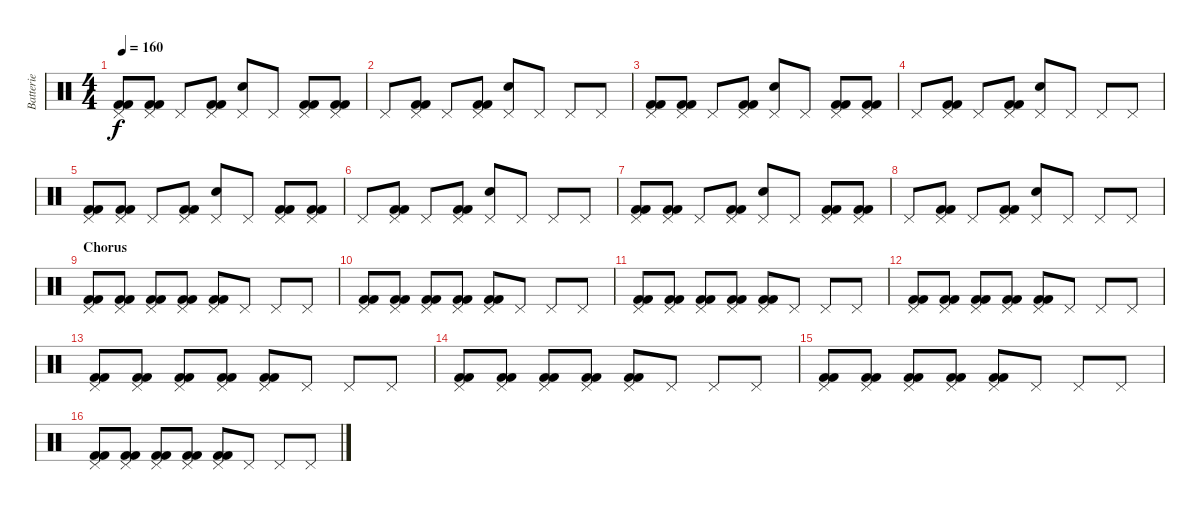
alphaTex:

\track ("Batterie" "Batterie") {instrument percussion}
\staff {score}
\articulation defaults
\ts (4 4)
\tempo 160
\clef neutral
\ks c
("Pedal Hi-Hat (hit)" "Kick (hit) 2" "Kick (hit) 2").8{dy f} ("Pedal Hi-Hat (hit)" "Kick (hit) 2" "Kick (hit) 2").8 "Pedal Hi-Hat (hit)".8 ("Pedal Hi-Hat (hit)" "Kick (hit) 2" "Kick (hit) 2").8 ("Pedal Hi-Hat (hit)" "Electric Snare (hit)").8 "Pedal Hi-Hat (hit)".8 ("Pedal Hi-Hat (hit)" "Kick (hit) 2" "Kick (hit) 2").8 ("Pedal Hi-Hat (hit)" "Kick (hit) 2" "Kick (hit) 2").8 |
"Pedal Hi-Hat (hit)".8 ("Pedal Hi-Hat (hit)" "Kick (hit) 2" "Kick (hit) 2").8 "Pedal Hi-Hat (hit)".8 ("Pedal Hi-Hat (hit)" "Kick (hit) 2" "Kick (hit) 2").8 ("Pedal Hi-Hat (hit)" "Electric Snare (hit)").8 "Pedal Hi-Hat (hit)".8 "Pedal Hi-Hat (hit)".8 "Pedal Hi-Hat (hit)".8 |
("Pedal Hi-Hat (hit)" "Kick (hit) 2" "Kick (hit) 2").8 ("Pedal Hi-Hat (hit)" "Kick (hit) 2" "Kick (hit) 2").8 "Pedal Hi-Hat (hit)".8 ("Pedal Hi-Hat (hit)" "Kick (hit) 2" "Kick (hit) 2").8 ("Pedal Hi-Hat (hit)" "Electric Snare (hit)").8 "Pedal Hi-Hat (hit)".8 ("Pedal Hi-Hat (hit)" "Kick (hit) 2" "Kick (hit) 2").8 ("Pedal Hi-Hat (hit)" "Kick (hit) 2" "Kick (hit) 2").8 |
"Pedal Hi-Hat (hit)".8 ("Pedal Hi-Hat (hit)" "Kick (hit) 2" "Kick (hit) 2").8 "Pedal Hi-Hat (hit)".8 ("Pedal Hi-Hat (hit)" "Kick (hit) 2" "Kick (hit) 2").8 ("Pedal Hi-Hat (hit)" "Electric Snare (hit)").8 "Pedal Hi-Hat (hit)".8 "Pedal Hi-Hat (hit)".8 "Pedal Hi-Hat (hit)".8 |
("Pedal Hi-Hat (hit)" "Kick (hit) 2" "Kick (hit) 2").8 ("Pedal Hi-Hat (hit)" "Kick (hit) 2" "Kick (hit) 2").8 "Pedal Hi-Hat (hit)".8 ("Pedal Hi-Hat (hit)" "Kick (hit) 2" "Kick (hit) 2").8 ("Pedal Hi-Hat (hit)" "Electric Snare (hit)").8 "Pedal Hi-Hat (hit)".8 ("Pedal Hi-Hat (hit)" "Kick (hit) 2" "Kick (hit) 2").8 ("Pedal Hi-Hat (hit)" "Kick (hit) 2" "Kick (hit) 2").8 |
"Pedal Hi-Hat (hit)".8 ("Pedal Hi-Hat (hit)" "Kick (hit) 2" "Kick (hit) 2").8 "Pedal Hi-Hat (hit)".8 ("Pedal Hi-Hat (hit)" "Kick (hit) 2" "Kick (hit) 2").8 ("Pedal Hi-Hat (hit)" "Electric Snare (hit)").8 "Pedal Hi-Hat (hit)".8 "Pedal Hi-Hat (hit)".8 "Pedal Hi-Hat (hit)".8 |
("Pedal Hi-Hat (hit)" "Kick (hit) 2" "Kick (hit) 2").8 ("Pedal Hi-Hat (hit)" "Kick (hit) 2" "Kick (hit) 2").8 "Pedal Hi-Hat (hit)".8 ("Pedal Hi-Hat (hit)" "Kick (hit) 2" "Kick (hit) 2").8 ("Pedal Hi-Hat (hit)" "Electric Snare (hit)").8 "Pedal Hi-Hat (hit)".8 ("Pedal Hi-Hat (hit)" "Kick (hit) 2" "Kick (hit) 2").8 ("Pedal Hi-Hat (hit)" "Kick (hit) 2" "Kick (hit) 2").8 |
"Pedal Hi-Hat (hit)".8 ("Pedal Hi-Hat (hit)" "Kick (hit) 2" "Kick (hit) 2").8 "Pedal Hi-Hat (hit)".8 ("Pedal Hi-Hat (hit)" "Kick (hit) 2" "Kick (hit) 2").8 ("Pedal Hi-Hat (hit)" "Electric Snare (hit)").8 "Pedal Hi-Hat (hit)".8 "Pedal Hi-Hat (hit)".8 "Pedal Hi-Hat (hit)".8 |
\section ("" "Chorus")
("Pedal Hi-Hat (hit)" "Kick (hit) 2" "Kick (hit) 2").8 ("Pedal Hi-Hat (hit)" "Kick (hit) 2" "Kick (hit) 2").8 ("Pedal Hi-Hat (hit)" "Kick (hit) 2" "Kick (hit) 2").8 ("Pedal Hi-Hat (hit)" "Kick (hit) 2" "Kick (hit) 2").8 ("Pedal Hi-Hat (hit)" "Kick (hit) 2" "Kick (hit) 2").8 "Pedal Hi-Hat (hit)".8 "Pedal Hi-Hat (hit)".8 "Pedal Hi-Hat (hit)".8 |
("Pedal Hi-Hat (hit)" "Kick (hit) 2" "Kick (hit) 2").8 ("Pedal Hi-Hat (hit)" "Kick (hit) 2" "Kick (hit) 2").8 ("Pedal Hi-Hat (hit)" "Kick (hit) 2" "Kick (hit) 2").8 ("Pedal Hi-Hat (hit)" "Kick (hit) 2" "Kick (hit) 2").8 ("Pedal Hi-Hat (hit)" "Kick (hit) 2" "Kick (hit) 2").8 "Pedal Hi-Hat (hit)".8 "Pedal Hi-Hat (hit)".8 "Pedal Hi-Hat (hit)".8 |
("Pedal Hi-Hat (hit)" "Kick (hit) 2" "Kick (hit) 2").8 ("Pedal Hi-Hat (hit)" "Kick (hit) 2" "Kick (hit) 2").8 ("Pedal Hi-Hat (hit)" "Kick (hit) 2" "Kick (hit) 2").8 ("Pedal Hi-Hat (hit)" "Kick (hit) 2" "Kick (hit) 2").8 ("Pedal Hi-Hat (hit)" "Kick (hit) 2" "Kick (hit) 2").8 "Pedal Hi-Hat (hit)".8 "Pedal Hi-Hat (hit)".8 "Pedal Hi-Hat (hit)".8 |
("Pedal Hi-Hat (hit)" "Kick (hit) 2" "Kick (hit) 2").8 ("Pedal Hi-Hat (hit)" "Kick (hit) 2" "Kick (hit) 2").8 ("Pedal Hi-Hat (hit)" "Kick (hit) 2" "Kick (hit) 2").8 ("Pedal Hi-Hat (hit)" "Kick (hit) 2" "Kick (hit) 2").8 ("Pedal Hi-Hat (hit)" "Kick (hit) 2" "Kick (hit) 2").8 "Pedal Hi-Hat (hit)".8 "Pedal Hi-Hat (hit)".8 "Pedal Hi-Hat (hit)".8 |
("Pedal Hi-Hat (hit)" "Kick (hit) 2" "Kick (hit) 2").8 ("Pedal Hi-Hat (hit)" "Kick (hit) 2" "Kick (hit) 2").8 ("Pedal Hi-Hat (hit)" "Kick (hit) 2" "Kick (hit) 2").8 ("Pedal Hi-Hat (hit)" "Kick (hit) 2" "Kick (hit) 2").8 ("Pedal Hi-Hat (hit)" "Kick (hit) 2" "Kick (hit) 2").8 "Pedal Hi-Hat (hit)".8 "Pedal Hi-Hat (hit)".8 "Pedal Hi-Hat (hit)".8 |
("Pedal Hi-Hat (hit)" "Kick (hit) 2" "Kick (hit) 2").8 ("Pedal Hi-Hat (hit)" "Kick (hit) 2" "Kick (hit) 2").8 ("Pedal Hi-Hat (hit)" "Kick (hit) 2" "Kick (hit) 2").8 ("Pedal Hi-Hat (hit)" "Kick (hit) 2" "Kick (hit) 2").8 ("Pedal Hi-Hat (hit)" "Kick (hit) 2" "Kick (hit) 2").8 "Pedal Hi-Hat (hit)".8 "Pedal Hi-Hat (hit)".8 "Pedal Hi-Hat (hit)".8 |
("Pedal Hi-Hat (hit)" "Kick (hit) 2" "Kick (hit) 2").8 ("Pedal Hi-Hat (hit)" "Kick (hit) 2" "Kick (hit) 2").8 ("Pedal Hi-Hat (hit)" "Kick (hit) 2" "Kick (hit) 2").8 ("Pedal Hi-Hat (hit)" "Kick (hit) 2" "Kick (hit) 2").8 ("Pedal Hi-Hat (hit)" "Kick (hit) 2" "Kick (hit) 2").8 "Pedal Hi-Hat (hit)".8 "Pedal Hi-Hat (hit)".8 "Pedal Hi-Hat (hit)".8 |
("Pedal Hi-Hat (hit)" "Kick (hit) 2" "Kick (hit) 2").8 ("Pedal Hi-Hat (hit)" "Kick (hit) 2" "Kick (hit) 2").8 ("Pedal Hi-Hat (hit)" "Kick (hit) 2" "Kick (hit) 2").8 ("Pedal Hi-Hat (hit)" "Kick (hit) 2" "Kick (hit) 2").8 ("Pedal Hi-Hat (hit)" "Kick (hit) 2" "Kick (hit) 2").8 "Pedal Hi-Hat (hit)".8 "Pedal Hi-Hat (hit)".8 "Pedal Hi-Hat (hit)".8
